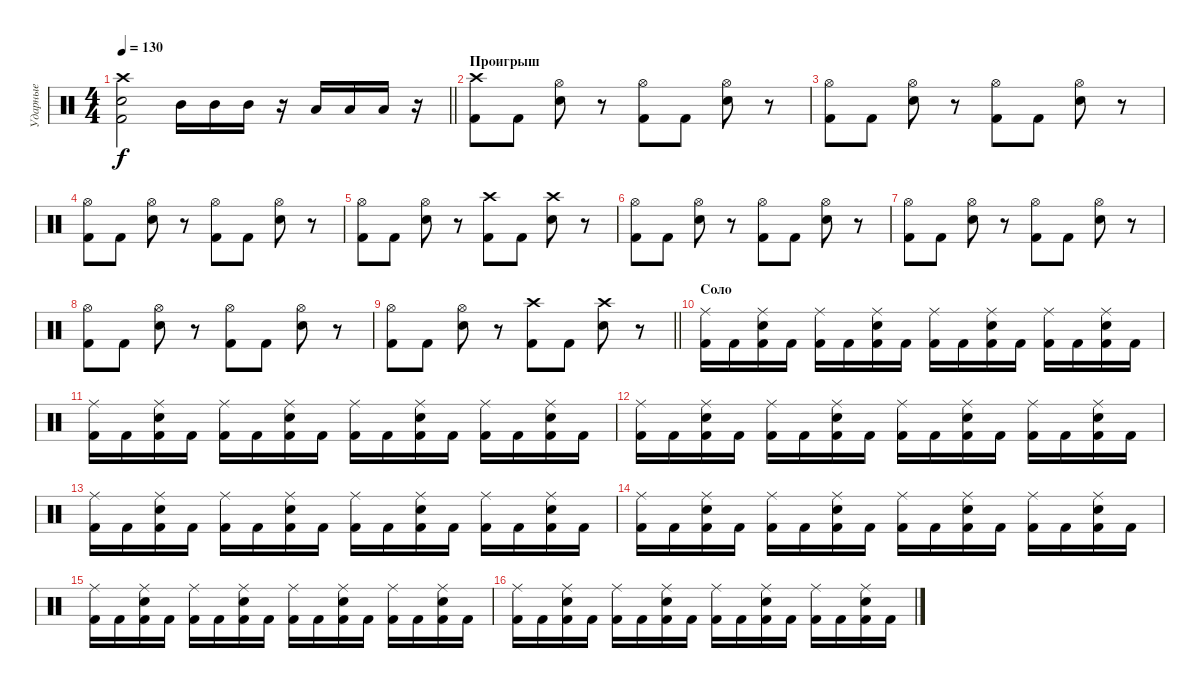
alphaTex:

\track ("Ударные" "Ударные") {instrument percussion}
\staff {score}
\articulation defaults
\ts (4 4)
\tempo 130
\clef neutral
\barLineRight lightlight
\ks c
("Crash high (hit)" "Snare (hit) 2" "Kick (hit) 2").2{dy f} "Mid Tom (hit)".16 "Mid Tom (hit)".16 "Mid Tom (hit)".16 r.16 "Low Tom (hit)".16 "Low Tom (hit)".16 "Low Tom (hit)".16 r.16 |
\section ("" "Проигрыш")
("Crash high (hit)" "Kick (hit) 2").8 "Kick (hit) 2".8 ("Hi-Hat (open)" "Snare (hit) 2").8 r.8 ("Hi-Hat (open)" "Kick (hit) 2").8 "Kick (hit) 2".8 ("Hi-Hat (open)" "Snare (hit) 2").8 r.8 |
("Hi-Hat (open)" "Kick (hit) 2").8 "Kick (hit) 2".8 ("Hi-Hat (open)" "Snare (hit) 2").8 r.8 ("Hi-Hat (open)" "Kick (hit) 2").8 "Kick (hit) 2".8 ("Hi-Hat (open)" "Snare (hit) 2").8 r.8 |
("Hi-Hat (open)" "Kick (hit) 2").8 "Kick (hit) 2".8 ("Hi-Hat (open)" "Snare (hit) 2").8 r.8 ("Hi-Hat (open)" "Kick (hit) 2").8 "Kick (hit) 2".8 ("Hi-Hat (open)" "Snare (hit) 2").8 r.8 |
("Hi-Hat (open)" "Kick (hit) 2").8 "Kick (hit) 2".8 ("Hi-Hat (open)" "Snare (hit) 2").8 r.8 ("Crash high (hit)" "Kick (hit) 2").8 "Kick (hit) 2".8 ("Crash high (hit)" "Snare (hit) 2").8 r.8 |
("Hi-Hat (open)" "Kick (hit) 2").8 "Kick (hit) 2".8 ("Hi-Hat (open)" "Snare (hit) 2").8 r.8 ("Hi-Hat (open)" "Kick (hit) 2").8 "Kick (hit) 2".8 ("Hi-Hat (open)" "Snare (hit) 2").8 r.8 |
("Hi-Hat (open)" "Kick (hit) 2").8 "Kick (hit) 2".8 ("Hi-Hat (open)" "Snare (hit) 2").8 r.8 ("Hi-Hat (open)" "Kick (hit) 2").8 "Kick (hit) 2".8 ("Hi-Hat (open)" "Snare (hit) 2").8 r.8 |
("Hi-Hat (open)" "Kick (hit) 2").8 "Kick (hit) 2".8 ("Hi-Hat (open)" "Snare (hit) 2").8 r.8 ("Hi-Hat (open)" "Kick (hit) 2").8 "Kick (hit) 2".8 ("Hi-Hat (open)" "Snare (hit) 2").8 r.8 |
\barLineRight lightlight
("Hi-Hat (open)" "Kick (hit) 2").8 "Kick (hit) 2".8 ("Hi-Hat (open)" "Snare (hit) 2").8 r.8 ("Crash high (hit)" "Kick (hit) 2").8 "Kick (hit) 2".8 ("Crash high (hit)" "Snare (hit) 2").8 r.8 |
\section ("" "Соло")
("Ride (middle)" "Kick (hit) 2").16 "Kick (hit) 2".16 ("Ride (middle)" "Snare (hit) 2" "Kick (hit) 2").16 "Kick (hit) 2".16 ("Ride (middle)" "Kick (hit) 2").16 "Kick (hit) 2".16 ("Ride (middle)" "Snare (hit) 2" "Kick (hit) 2").16 "Kick (hit) 2".16 ("Ride (middle)" "Kick (hit) 2").16 "Kick (hit) 2".16 ("Ride (middle)" "Snare (hit) 2" "Kick (hit) 2").16 "Kick (hit) 2".16 ("Ride (middle)" "Kick (hit) 2").16 "Kick (hit) 2".16 ("Ride (middle)" "Snare (hit) 2" "Kick (hit) 2").16 "Kick (hit) 2".16 |
("Ride (middle)" "Kick (hit) 2").16 "Kick (hit) 2".16 ("Ride (middle)" "Snare (hit) 2" "Kick (hit) 2").16 "Kick (hit) 2".16 ("Ride (middle)" "Kick (hit) 2").16 "Kick (hit) 2".16 ("Ride (middle)" "Snare (hit) 2" "Kick (hit) 2").16 "Kick (hit) 2".16 ("Ride (middle)" "Kick (hit) 2").16 "Kick (hit) 2".16 ("Ride (middle)" "Snare (hit) 2" "Kick (hit) 2").16 "Kick (hit) 2".16 ("Ride (middle)" "Kick (hit) 2").16 "Kick (hit) 2".16 ("Ride (middle)" "Snare (hit) 2" "Kick (hit) 2").16 "Kick (hit) 2".16 |
("Ride (middle)" "Kick (hit) 2").16 "Kick (hit) 2".16 ("Ride (middle)" "Snare (hit) 2" "Kick (hit) 2").16 "Kick (hit) 2".16 ("Ride (middle)" "Kick (hit) 2").16 "Kick (hit) 2".16 ("Ride (middle)" "Snare (hit) 2" "Kick (hit) 2").16 "Kick (hit) 2".16 ("Ride (middle)" "Kick (hit) 2").16 "Kick (hit) 2".16 ("Ride (middle)" "Snare (hit) 2" "Kick (hit) 2").16 "Kick (hit) 2".16 ("Ride (middle)" "Kick (hit) 2").16 "Kick (hit) 2".16 ("Ride (middle)" "Snare (hit) 2" "Kick (hit) 2").16 "Kick (hit) 2".16 |
("Ride (middle)" "Kick (hit) 2").16 "Kick (hit) 2".16 ("Ride (middle)" "Snare (hit) 2" "Kick (hit) 2").16 "Kick (hit) 2".16 ("Ride (middle)" "Kick (hit) 2").16 "Kick (hit) 2".16 ("Ride (middle)" "Snare (hit) 2" "Kick (hit) 2").16 "Kick (hit) 2".16 ("Ride (middle)" "Kick (hit) 2").16 "Kick (hit) 2".16 ("Ride (middle)" "Snare (hit) 2" "Kick (hit) 2").16 "Kick (hit) 2".16 ("Ride (middle)" "Kick (hit) 2").16 "Kick (hit) 2".16 ("Ride (middle)" "Snare (hit) 2" "Kick (hit) 2").16 "Kick (hit) 2".16 |
("Ride (middle)" "Kick (hit) 2").16 "Kick (hit) 2".16 ("Ride (middle)" "Snare (hit) 2" "Kick (hit) 2").16 "Kick (hit) 2".16 ("Ride (middle)" "Kick (hit) 2").16 "Kick (hit) 2".16 ("Ride (middle)" "Snare (hit) 2" "Kick (hit) 2").16 "Kick (hit) 2".16 ("Ride (middle)" "Kick (hit) 2").16 "Kick (hit) 2".16 ("Ride (middle)" "Snare (hit) 2" "Kick (hit) 2").16 "Kick (hit) 2".16 ("Ride (middle)" "Kick (hit) 2").16 "Kick (hit) 2".16 ("Ride (middle)" "Snare (hit) 2" "Kick (hit) 2").16 "Kick (hit) 2".16 |
("Ride (middle)" "Kick (hit) 2").16 "Kick (hit) 2".16 ("Ride (middle)" "Snare (hit) 2" "Kick (hit) 2").16 "Kick (hit) 2".16 ("Ride (middle)" "Kick (hit) 2").16 "Kick (hit) 2".16 ("Ride (middle)" "Snare (hit) 2" "Kick (hit) 2").16 "Kick (hit) 2".16 ("Ride (middle)" "Kick (hit) 2").16 "Kick (hit) 2".16 ("Ride (middle)" "Snare (hit) 2" "Kick (hit) 2").16 "Kick (hit) 2".16 ("Ride (middle)" "Kick (hit) 2").16 "Kick (hit) 2".16 ("Ride (middle)" "Snare (hit) 2" "Kick (hit) 2").16 "Kick (hit) 2".16 |
("Ride (middle)" "Kick (hit) 2").16 "Kick (hit) 2".16 ("Ride (middle)" "Snare (hit) 2" "Kick (hit) 2").16 "Kick (hit) 2".16 ("Ride (middle)" "Kick (hit) 2").16 "Kick (hit) 2".16 ("Ride (middle)" "Snare (hit) 2" "Kick (hit) 2").16 "Kick (hit) 2".16 ("Ride (middle)" "Kick (hit) 2").16 "Kick (hit) 2".16 ("Ride (middle)" "Snare (hit) 2" "Kick (hit) 2").16 "Kick (hit) 2".16 ("Ride (middle)" "Kick (hit) 2").16 "Kick (hit) 2".16 ("Ride (middle)" "Snare (hit) 2" "Kick (hit) 2").16 "Kick (hit) 2".16
